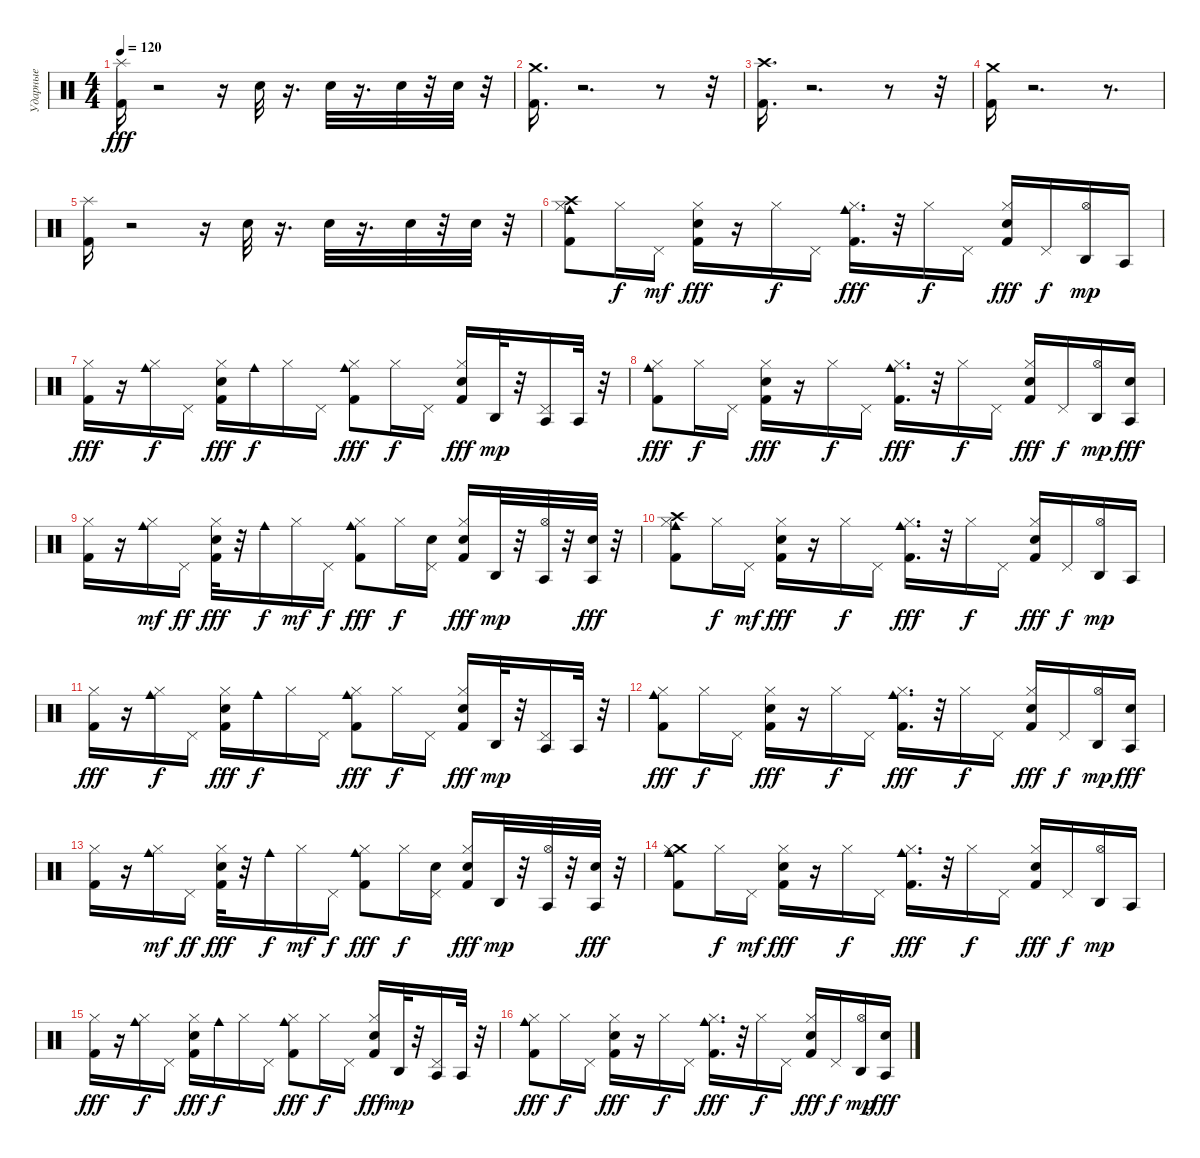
\track ("Ударные" "Ударные") {instrument percussion}
\staff {score}
\articulation defaults
\ts (4 4)
\tempo 120
\clef neutral
\ks c
("Kick (hit) 2" "Splash (hit)").16{dy fff} r.2 r.16 "Electric Snare (hit)".32 r.16{d} "Electric Snare (hit)".32 r.16{d} "Electric Snare (hit)".32 r.32 "Electric Snare (hit)".32 r.32 |
("Kick (hit) 2" "Crash medium (hit)").16{d} r.2{d} r.8 r.32 |
("Kick (hit) 2" "Crash high (hit)").16{d} r.2{d} r.8 r.32 |
("Kick (hit) 2" "Crash medium (hit)").16 r.2{d} r.8{d} |
("Kick (hit) 2" "Splash (hit)").16 r.2 r.16 "Electric Snare (hit)".32 r.16{d} "Electric Snare (hit)".32 r.16{d} "Electric Snare (hit)".32 r.32 "Electric Snare (hit)".32 r.32 |
("Cowbell medium (hit)" "Crash high (hit)" "Hi-Hat (closed)" "Kick (hit) 2").8 "Hi-Hat (closed)".16{dy f} "Pedal Hi-Hat (hit)".16{dy mf} ("Electric Snare (hit)" "Kick (hit) 2" "Hi-Hat (closed)").16{dy fff} r.16 "Hi-Hat (closed)".16{dy f} "Pedal Hi-Hat (hit)".16 ("Cowbell medium (hit)" "Kick (hit) 2" "Hi-Hat (closed)").16{d dy fff} r.32 "Hi-Hat (closed)".16{dy f} "Pedal Hi-Hat (hit)".16 ("Kick (hit) 2" "Electric Snare (hit)" "Hi-Hat (closed)").16{dy fff} "Pedal Hi-Hat (hit)".16{dy f} ("Agogo high (hit)" "Hi-Hat (open)").16{dy mp} "Agogo tow (hit)".16 |
("Kick (hit) 2" "Hi-Hat (closed)").16{dy fff} r.16 ("Cowbell medium (hit)" "Hi-Hat (closed)").16{dy f} "Pedal Hi-Hat (hit)".16 ("Hi-Hat (closed)" "Kick (hit) 2" "Electric Snare (hit)").16{dy fff} "Cowbell medium (hit)".16{dy f} "Hi-Hat (closed)".16 "Pedal Hi-Hat (hit)".16 ("Cowbell medium (hit)" "Kick (hit) 2" "Hi-Hat (closed)").8{dy fff} "Hi-Hat (closed)".16{dy f} "Pedal Hi-Hat (hit)".16 ("Electric Snare (hit)" "Kick (hit) 2" "Hi-Hat (closed)").16{dy fff} "Agogo high (hit)".32{dy mp} r.32 ("Agogo tow (hit)" "Pedal Hi-Hat (hit)").16 "Agogo tow (hit)".32 r.32 |
("Cowbell medium (hit)" "Kick (hit) 2" "Hi-Hat (closed)").8{dy fff} "Hi-Hat (closed)".16{dy f} "Pedal Hi-Hat (hit)".16 ("Electric Snare (hit)" "Kick (hit) 2" "Hi-Hat (closed)").16{dy fff} r.16 "Hi-Hat (closed)".16{dy f} "Pedal Hi-Hat (hit)".16 ("Cowbell medium (hit)" "Hi-Hat (closed)" "Kick (hit) 2").16{d dy fff} r.32 "Hi-Hat (closed)".16{dy f} "Pedal Hi-Hat (hit)".16 ("Kick (hit) 2" "Electric Snare (hit)" "Hi-Hat (closed)").16{dy fff} "Pedal Hi-Hat (hit)".16{dy f} ("Agogo high (hit)" "Hi-Hat (open)").16{dy mp} ("Agogo tow (hit)" "Electric Snare (hit)").16{dy fff} |
("Kick (hit) 2" "Hi-Hat (closed)").16 r.16 ("Cowbell medium (hit)" "Hi-Hat (closed)").16{dy mf} "Pedal Hi-Hat (hit)".16{dy ff} ("Electric Snare (hit)" "Kick (hit) 2" "Hi-Hat (closed)").32{dy fff} r.32 "Cowbell medium (hit)".16{dy f} "Hi-Hat (closed)".16{dy mf} "Pedal Hi-Hat (hit)".16{dy f} ("Cowbell medium (hit)" "Hi-Hat (closed)" "Kick (hit) 2").8{dy fff} "Hi-Hat (closed)".16{dy f} ("Pedal Hi-Hat (hit)" "Electric Snare (hit)").16 ("Hi-Hat (closed)" "Kick (hit) 2" "Electric Snare (hit)").16{dy fff} "Agogo high (hit)".32{dy mp} r.32 ("Agogo tow (hit)" "Hi-Hat (open)").32 r.32 ("Agogo tow (hit)" "Electric Snare (hit)").32{dy fff} r.32 |
("Cowbell medium (hit)" "Crash high (hit)" "Hi-Hat (closed)" "Kick (hit) 2").8 "Hi-Hat (closed)".16{dy f} "Pedal Hi-Hat (hit)".16{dy mf} ("Electric Snare (hit)" "Kick (hit) 2" "Hi-Hat (closed)").16{dy fff} r.16 "Hi-Hat (closed)".16{dy f} "Pedal Hi-Hat (hit)".16 ("Cowbell medium (hit)" "Kick (hit) 2" "Hi-Hat (closed)").16{d dy fff} r.32 "Hi-Hat (closed)".16{dy f} "Pedal Hi-Hat (hit)".16 ("Kick (hit) 2" "Electric Snare (hit)" "Hi-Hat (closed)").16{dy fff} "Pedal Hi-Hat (hit)".16{dy f} ("Agogo high (hit)" "Hi-Hat (open)").16{dy mp} "Agogo tow (hit)".16 |
("Kick (hit) 2" "Hi-Hat (closed)").16{dy fff} r.16 ("Cowbell medium (hit)" "Hi-Hat (closed)").16{dy f} "Pedal Hi-Hat (hit)".16 ("Hi-Hat (closed)" "Kick (hit) 2" "Electric Snare (hit)").16{dy fff} "Cowbell medium (hit)".16{dy f} "Hi-Hat (closed)".16 "Pedal Hi-Hat (hit)".16 ("Cowbell medium (hit)" "Kick (hit) 2" "Hi-Hat (closed)").8{dy fff} "Hi-Hat (closed)".16{dy f} "Pedal Hi-Hat (hit)".16 ("Electric Snare (hit)" "Kick (hit) 2" "Hi-Hat (closed)").16{dy fff} "Agogo high (hit)".32{dy mp} r.32 ("Agogo tow (hit)" "Pedal Hi-Hat (hit)").16 "Agogo tow (hit)".32 r.32 |
("Cowbell medium (hit)" "Kick (hit) 2" "Hi-Hat (closed)").8{dy fff} "Hi-Hat (closed)".16{dy f} "Pedal Hi-Hat (hit)".16 ("Electric Snare (hit)" "Kick (hit) 2" "Hi-Hat (closed)").16{dy fff} r.16 "Hi-Hat (closed)".16{dy f} "Pedal Hi-Hat (hit)".16 ("Cowbell medium (hit)" "Hi-Hat (closed)" "Kick (hit) 2").16{d dy fff} r.32 "Hi-Hat (closed)".16{dy f} "Pedal Hi-Hat (hit)".16 ("Kick (hit) 2" "Electric Snare (hit)" "Hi-Hat (closed)").16{dy fff} "Pedal Hi-Hat (hit)".16{dy f} ("Agogo high (hit)" "Hi-Hat (open)").16{dy mp} ("Agogo tow (hit)" "Electric Snare (hit)").16{dy fff} |
("Kick (hit) 2" "Hi-Hat (closed)").16 r.16 ("Cowbell medium (hit)" "Hi-Hat (closed)").16{dy mf} "Pedal Hi-Hat (hit)".16{dy ff} ("Electric Snare (hit)" "Kick (hit) 2" "Hi-Hat (closed)").32{dy fff} r.32 "Cowbell medium (hit)".16{dy f} "Hi-Hat (closed)".16{dy mf} "Pedal Hi-Hat (hit)".16{dy f} ("Cowbell medium (hit)" "Hi-Hat (closed)" "Kick (hit) 2").8{dy fff} "Hi-Hat (closed)".16{dy f} ("Pedal Hi-Hat (hit)" "Electric Snare (hit)").16 ("Hi-Hat (closed)" "Kick (hit) 2" "Electric Snare (hit)").16{dy fff} "Agogo high (hit)".32{dy mp} r.32 ("Agogo tow (hit)" "Hi-Hat (open)").32 r.32 ("Agogo tow (hit)" "Electric Snare (hit)").32{dy fff} r.32 |
("Cowbell medium (hit)" "Crash medium (hit)" "Hi-Hat (closed)" "Kick (hit) 2").8 "Hi-Hat (closed)".16{dy f} "Pedal Hi-Hat (hit)".16{dy mf} ("Electric Snare (hit)" "Kick (hit) 2" "Hi-Hat (closed)").16{dy fff} r.16 "Hi-Hat (closed)".16{dy f} "Pedal Hi-Hat (hit)".16 ("Cowbell medium (hit)" "Kick (hit) 2" "Hi-Hat (closed)").16{d dy fff} r.32 "Hi-Hat (closed)".16{dy f} "Pedal Hi-Hat (hit)".16 ("Kick (hit) 2" "Electric Snare (hit)" "Hi-Hat (closed)").16{dy fff} "Pedal Hi-Hat (hit)".16{dy f} ("Agogo high (hit)" "Hi-Hat (open)").16{dy mp} "Agogo tow (hit)".16 |
("Kick (hit) 2" "Hi-Hat (closed)").16{dy fff} r.16 ("Cowbell medium (hit)" "Hi-Hat (closed)").16{dy f} "Pedal Hi-Hat (hit)".16 ("Hi-Hat (closed)" "Kick (hit) 2" "Electric Snare (hit)").16{dy fff} "Cowbell medium (hit)".16{dy f} "Hi-Hat (closed)".16 "Pedal Hi-Hat (hit)".16 ("Cowbell medium (hit)" "Kick (hit) 2" "Hi-Hat (closed)").8{dy fff} "Hi-Hat (closed)".16{dy f} "Pedal Hi-Hat (hit)".16 ("Electric Snare (hit)" "Kick (hit) 2" "Hi-Hat (closed)").16{dy fff} "Agogo high (hit)".32{dy mp} r.32 ("Agogo tow (hit)" "Pedal Hi-Hat (hit)").16 "Agogo tow (hit)".32 r.32 |
("Cowbell medium (hit)" "Kick (hit) 2" "Hi-Hat (closed)").8{dy fff} "Hi-Hat (closed)".16{dy f} "Pedal Hi-Hat (hit)".16 ("Electric Snare (hit)" "Kick (hit) 2" "Hi-Hat (closed)").16{dy fff} r.16 "Hi-Hat (closed)".16{dy f} "Pedal Hi-Hat (hit)".16 ("Cowbell medium (hit)" "Hi-Hat (closed)" "Kick (hit) 2").16{d dy fff} r.32 "Hi-Hat (closed)".16{dy f} "Pedal Hi-Hat (hit)".16 ("Kick (hit) 2" "Electric Snare (hit)" "Hi-Hat (closed)").16{dy fff} "Pedal Hi-Hat (hit)".16{dy f} ("Agogo high (hit)" "Hi-Hat (open)").16{dy mp} ("Agogo tow (hit)" "Electric Snare (hit)").16{dy fff}
